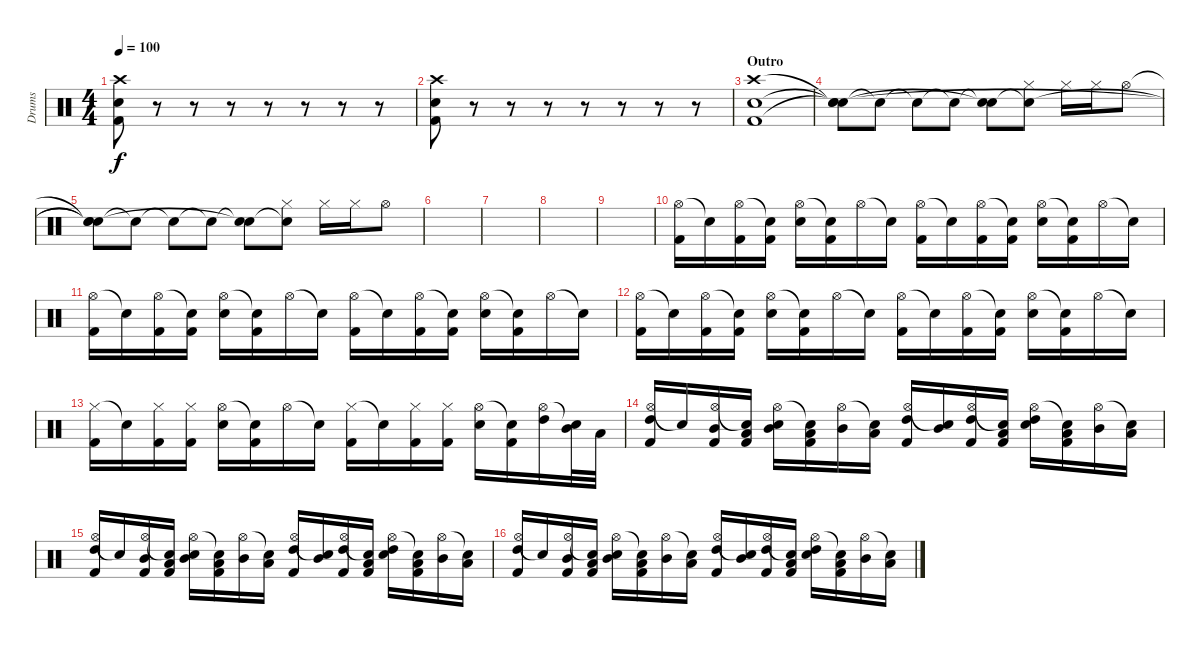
\track ("Drums" "Drums") {instrument percussion}
\staff {score}
\articulation defaults
\ts (4 4)
\tempo 100
\clef neutral
\ks c
("Crash high (hit)" "Electric Snare (hit)" "Kick (hit) 2").8{dy f} r.8 r.8 r.8 r.8 r.8 r.8 r.8 |
("Crash high (hit)" "Electric Snare (hit)" "Kick (hit) 2").8 r.8 r.8 r.8 r.8 r.8 r.8 r.8 |
\section ("" "Outro")
("Crash high (hit)" "Electric Snare (hit)" "Kick (hit) 2").1 |
("Snare (hit)"{t} "Snare (hit)"{t} "Snare (hit)"{t}).8 "Snare (hit)"{t}.8 "Snare (hit)"{t}.8 "Snare (hit)"{t}.8 ("Snare (hit)"{t} "Snare (hit)"{t}).8 ("Hi-Hat (closed)" "Snare (hit)"{t}).8 "Hi-Hat (closed)".16 "Hi-Hat (closed)".16 "Hi-Hat (open)".8 |
("Snare (hit)"{t} "Snare (hit)"{t} "Snare (hit)"{t}).8 "Snare (hit)"{t}.8 "Snare (hit)"{t}.8 "Snare (hit)"{t}.8 ("Snare (hit)"{t} "Snare (hit)"{t}).8 ("Hi-Hat (closed)" "Snare (hit)"{t}).8 "Hi-Hat (closed)".16 "Hi-Hat (closed)".16 "Hi-Hat (open)".8 |
|
|
|
|
("Hi-Hat (open)" "Kick (hit) 2").16 "Snare (hit)"{t}.16 ("Hi-Hat (open)" "Kick (hit) 2").16 ("Snare (hit)"{t} "Kick (hit) 2").16 ("Hi-Hat (open)" "Electric Snare (hit)").16 ("Snare (hit)"{t} "Kick (hit) 2").16 "Hi-Hat (open)".16 "Snare (hit)"{t}.16 ("Hi-Hat (open)" "Kick (hit) 2").16 "Snare (hit)"{t}.16 ("Hi-Hat (open)" "Kick (hit) 2").16 ("Snare (hit)"{t} "Kick (hit) 2").16 ("Hi-Hat (open)" "Electric Snare (hit)").16 ("Snare (hit)"{t} "Kick (hit) 2").16 "Hi-Hat (open)".16 "Snare (hit)"{t}.16 |
("Hi-Hat (open)" "Kick (hit) 2").16 "Snare (hit)"{t}.16 ("Hi-Hat (open)" "Kick (hit) 2").16 ("Snare (hit)"{t} "Kick (hit) 2").16 ("Hi-Hat (open)" "Electric Snare (hit)").16 ("Snare (hit)"{t} "Kick (hit) 2").16 "Hi-Hat (open)".16 "Snare (hit)"{t}.16 ("Hi-Hat (open)" "Kick (hit) 2").16 "Snare (hit)"{t}.16 ("Hi-Hat (open)" "Kick (hit) 2").16 ("Snare (hit)"{t} "Kick (hit) 2").16 ("Hi-Hat (open)" "Electric Snare (hit)").16 ("Snare (hit)"{t} "Kick (hit) 2").16 "Hi-Hat (open)".16 "Snare (hit)"{t}.16 |
("Hi-Hat (open)" "Kick (hit) 2").16 "Snare (hit)"{t}.16 ("Hi-Hat (open)" "Kick (hit) 2").16 ("Snare (hit)"{t} "Kick (hit) 2").16 ("Hi-Hat (open)" "Electric Snare (hit)").16 ("Snare (hit)"{t} "Kick (hit) 2").16 "Hi-Hat (open)".16 "Snare (hit)"{t}.16 ("Hi-Hat (open)" "Kick (hit) 2").16 "Snare (hit)"{t}.16 ("Hi-Hat (open)" "Kick (hit) 2").16 ("Snare (hit)"{t} "Kick (hit) 2").16 ("Hi-Hat (open)" "Electric Snare (hit)").16 ("Snare (hit)"{t} "Kick (hit) 2").16 "Hi-Hat (open)".16 "Snare (hit)"{t}.16 |
("Hi-Hat (closed)" "Kick (hit) 2").16 "Snare (hit)"{t}.16 ("Hi-Hat (closed)" "Kick (hit) 2").16 ("Hi-Hat (closed)" "Kick (hit) 2").16 ("Hi-Hat (open)" "Electric Snare (hit)").16 ("Snare (hit)"{t} "Kick (hit) 2").16 "Hi-Hat (open)".16 "Snare (hit)"{t}.16 ("Hi-Hat (closed)" "Kick (hit) 2").16 "Snare (hit)"{t}.16 ("Hi-Hat (closed)" "Kick (hit) 2").16 ("Hi-Hat (closed)" "Kick (hit) 2").16 ("Hi-Hat (open)" "Electric Snare (hit)").16 ("Snare (hit)"{t} "Kick (hit) 2").16 ("Hi-Hat (open)" "High Tom (hit)").16 ("Snare (hit)"{t} "Mid Tom (hit)").32 "Low Tom (hit)".32 |
("Hi-Hat (open)" "High Tom (hit)" "Kick (hit) 2").16{volume 16} "Snare (hit)"{t}.16 ("Hi-Hat (open)" "Mid Tom (hit)" "Kick (hit) 2").16 ("Snare (hit)"{t} "Low Tom (hit)" "Kick (hit) 2").16 ("Hi-Hat (open)" "Mid Tom (hit)" "Electric Snare (hit)").16 ("Snare (hit)"{t} "Low Tom (hit)" "Kick (hit) 2").16 ("Hi-Hat (open)" "Mid Tom (hit)").16 ("Snare (hit)"{t} "Low Tom (hit)").16 ("Hi-Hat (open)" "High Tom (hit)" "Kick (hit) 2").16 ("Snare (hit)"{t} "Mid Tom (hit)").16 ("Hi-Hat (open)" "High Tom (hit)" "Kick (hit) 2").16 ("Snare (hit)"{t} "Low Tom (hit)" "Kick (hit) 2").16 ("Hi-Hat (open)" "High Tom (hit)" "Electric Snare (hit)").16 ("Snare (hit)"{t} "Low Tom (hit)" "Kick (hit) 2").16 ("Hi-Hat (open)" "Mid Tom (hit)").16 ("Snare (hit)"{t} "Low Tom (hit)").16 |
("Hi-Hat (open)" "High Tom (hit)" "Kick (hit) 2").16 "Snare (hit)"{t}.16 ("Hi-Hat (open)" "Mid Tom (hit)" "Kick (hit) 2").16 ("Snare (hit)"{t} "Low Tom (hit)" "Kick (hit) 2").16 ("Hi-Hat (open)" "Mid Tom (hit)" "Electric Snare (hit)").16 ("Snare (hit)"{t} "Low Tom (hit)" "Kick (hit) 2").16 ("Hi-Hat (open)" "Mid Tom (hit)").16 ("Snare (hit)"{t} "Low Tom (hit)").16 ("Hi-Hat (open)" "High Tom (hit)" "Kick (hit) 2").16 ("Snare (hit)"{t} "Mid Tom (hit)").16 ("Hi-Hat (open)" "High Tom (hit)" "Kick (hit) 2").16 ("Snare (hit)"{t} "Low Tom (hit)" "Kick (hit) 2").16 ("Hi-Hat (open)" "High Tom (hit)" "Electric Snare (hit)").16 ("Snare (hit)"{t} "Low Tom (hit)" "Kick (hit) 2").16 ("Hi-Hat (open)" "Mid Tom (hit)").16 ("Snare (hit)"{t} "Low Tom (hit)").16 |
("Hi-Hat (open)" "High Tom (hit)" "Kick (hit) 2").16 "Snare (hit)"{t}.16 ("Hi-Hat (open)" "Mid Tom (hit)" "Kick (hit) 2").16 ("Snare (hit)"{t} "Low Tom (hit)" "Kick (hit) 2").16 ("Hi-Hat (open)" "Mid Tom (hit)" "Electric Snare (hit)").16 ("Snare (hit)"{t} "Low Tom (hit)" "Kick (hit) 2").16 ("Hi-Hat (open)" "Mid Tom (hit)").16 ("Snare (hit)"{t} "Low Tom (hit)").16 ("Hi-Hat (open)" "High Tom (hit)" "Kick (hit) 2").16 ("Snare (hit)"{t} "Mid Tom (hit)").16 ("Hi-Hat (open)" "High Tom (hit)" "Kick (hit) 2").16 ("Snare (hit)"{t} "Low Tom (hit)" "Kick (hit) 2").16 ("Hi-Hat (open)" "High Tom (hit)" "Electric Snare (hit)").16 ("Snare (hit)"{t} "Low Tom (hit)" "Kick (hit) 2").16 ("Hi-Hat (open)" "Mid Tom (hit)").16 ("Snare (hit)"{t} "Low Tom (hit)").16
